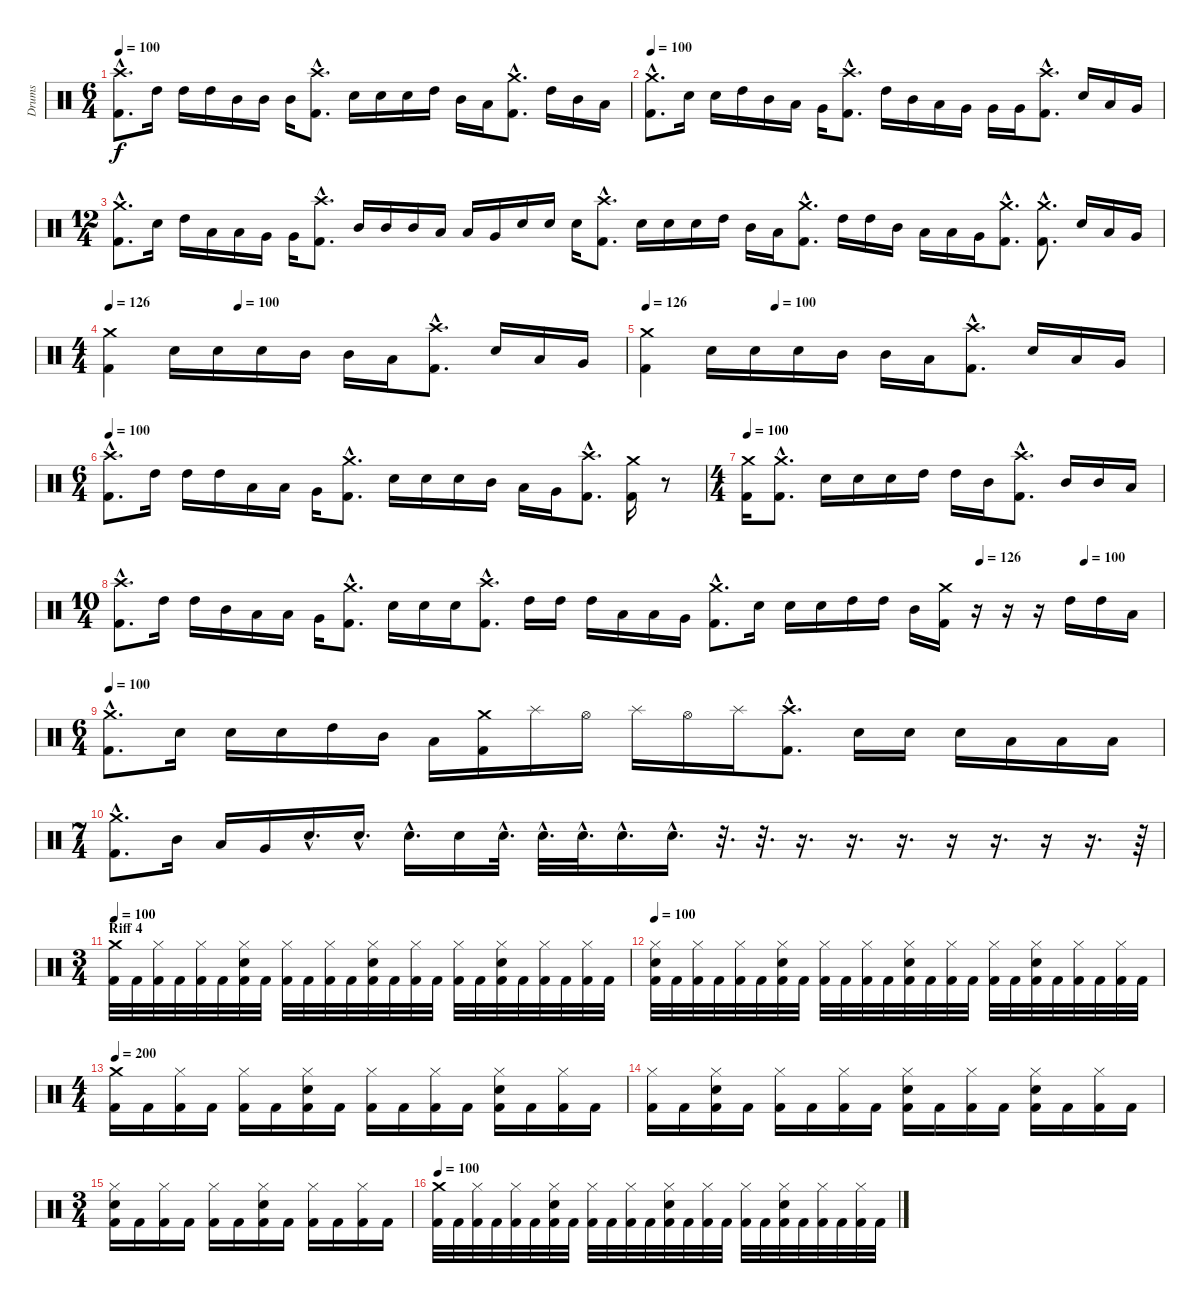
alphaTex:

\track ("Drums" "Drums") {instrument percussion}
\staff {score}
\articulation defaults
\ts (6 4)
\tempo 100
\clef neutral
\ks c
("Crash high (hit)"{hac} "Kick (hit) 2"{hac}).8{d dy f} "High Tom (hit)".16 "High Tom (hit)".16 "High Tom (hit)".16 "Mid Tom (hit)".16 "Mid Tom (hit)".16 "Mid Tom (hit)".16 ("Crash high (hit)"{hac} "Kick (hit) 2"{hac}).8{d} "Electric Snare (hit)".16 "Electric Snare (hit)".16 "Electric Snare (hit)".16 "High Tom (hit)".16 "Mid Tom (hit)".16 "Low Tom (hit)".16 ("Crash medium (hit)"{hac} "Kick (hit) 2"{hac}).8{d} "High Tom (hit)".16 "Mid Tom (hit)".16 "Low Tom (hit)".16 |
\tempo 100
("Crash medium (hit)"{hac} "Kick (hit) 2"{hac}).8{d} "Electric Snare (hit)".16 "Electric Snare (hit)".16 "High Tom (hit)".16 "Mid Tom (hit)".16 "Low Tom (hit)".16 "Very Low Tom (hit)".16 ("Crash high (hit)"{hac} "Kick (hit) 2"{hac}).8{d} "High Tom (hit)".16 "Mid Tom (hit)".16 "Low Tom (hit)".16 "Very Low Tom (hit)".16 "Very Low Tom (hit)".16 "Very Low Tom (hit)".16 ("Crash high (hit)"{hac} "Kick (hit) 2"{hac}).8{d} "Electric Snare (hit)".16 "Low Tom (hit)".16 "Very Low Tom (hit)".16 |
\ts (12 4)
("Crash medium (hit)"{hac} "Kick (hit) 2"{hac}).8{d} "Electric Snare (hit)".16 "High Tom (hit)".16 "Low Tom (hit)".16 "Low Tom (hit)".16 "Very Low Tom (hit)".16 "Very Low Tom (hit)".16 ("Crash high (hit)"{hac} "Kick (hit) 2"{hac}).8{d} "Mid Tom (hit)".16 "Mid Tom (hit)".16 "Mid Tom (hit)".16 "Low Tom (hit)".16 "Low Tom (hit)".16 "Very Low Tom (hit)".16 "Electric Snare (hit)".16 "Electric Snare (hit)".16 "Electric Snare (hit)".16 ("Crash high (hit)"{hac} "Kick (hit) 2"{hac}).8{d} "Electric Snare (hit)".16 "Electric Snare (hit)".16 "Electric Snare (hit)".16 "High Tom (hit)".16 "Mid Tom (hit)".16 "Low Tom (hit)".16 ("Crash medium (hit)"{hac} "Kick (hit) 2"{hac}).8{d} "High Tom (hit)".16 "High Tom (hit)".16 "Mid Tom (hit)".16 "Low Tom (hit)".16 "Low Tom (hit)".16 "Very Low Tom (hit)".16 ("Crash medium (hit)"{hac} "Kick (hit) 2"{hac}).8{d} ("Crash medium (hit)"{hac} "Kick (hit) 2"{hac}).8{d} "Electric Snare (hit)".16 "Low Tom (hit)".16 "Very Low Tom (hit)".16 |
\ts (4 4)
\tempo 126
\tempo (100 0.25)
("Crash medium (hit)" "Kick (hit) 2").4 "Electric Snare (hit)".16 "Electric Snare (hit)".16 "Electric Snare (hit)".16 "Mid Tom (hit)".16 "Mid Tom (hit)".16 "Low Tom (hit)".16 ("Crash high (hit)"{hac} "Kick (hit) 2"{hac}).8{d} "Electric Snare (hit)".16 "Low Tom (hit)".16 "Very Low Tom (hit)".16 |
\tempo 126
\tempo (100 0.25)
("Crash medium (hit)" "Kick (hit) 2").4 "Electric Snare (hit)".16 "Electric Snare (hit)".16 "Electric Snare (hit)".16 "Mid Tom (hit)".16 "Mid Tom (hit)".16 "Low Tom (hit)".16 ("Crash high (hit)"{hac} "Kick (hit) 2"{hac}).8{d} "Electric Snare (hit)".16 "Low Tom (hit)".16 "Very Low Tom (hit)".16 |
\ts (6 4)
\tempo 100
("Crash high (hit)"{hac} "Kick (hit) 2"{hac}).8{d} "High Tom (hit)".16 "High Tom (hit)".16 "High Tom (hit)".16 "Low Tom (hit)".16 "Low Tom (hit)".16 "Very Low Tom (hit)".16 ("Crash medium (hit)"{hac} "Kick (hit) 2"{hac}).8{d} "Electric Snare (hit)".16 "Electric Snare (hit)".16 "Electric Snare (hit)".16 "Mid Tom (hit)".16 "Low Tom (hit)".16 "Very Low Tom (hit)".16 ("Crash high (hit)"{hac} "Kick (hit) 2"{hac}).8{d} ("Crash medium (hit)" "Kick (hit) 2").16 r.8 |
\ts (4 4)
\tempo 100
("Crash medium (hit)" "Kick (hit) 2").16 ("Crash medium (hit)"{hac} "Kick (hit) 2"{hac}).8{d} "Electric Snare (hit)".16 "Electric Snare (hit)".16 "Electric Snare (hit)".16 "High Tom (hit)".16 "High Tom (hit)".16 "Mid Tom (hit)".16 ("Crash high (hit)"{hac} "Kick (hit) 2"{hac}).8{d} "Mid Tom (hit)".16 "Mid Tom (hit)".16 "Low Tom (hit)".16 |
\ts (10 4)
\tempo (126 0.825)
\tempo (100 0.925)
("Crash high (hit)"{hac} "Kick (hit) 2"{hac}).8{d} "High Tom (hit)".16 "High Tom (hit)".16 "Mid Tom (hit)".16 "Low Tom (hit)".16 "Low Tom (hit)".16 "Very Low Tom (hit)".16 ("Crash medium (hit)"{hac} "Kick (hit) 2"{hac}).8{d} "Electric Snare (hit)".16 "Electric Snare (hit)".16 "Electric Snare (hit)".16 ("Crash high (hit)"{hac} "Kick (hit) 2"{hac}).8{d} "High Tom (hit)".16 "High Tom (hit)".16 "High Tom (hit)".16 "Low Tom (hit)".16 "Low Tom (hit)".16 "Very Low Tom (hit)".16 ("Crash medium (hit)"{hac} "Kick (hit) 2"{hac}).8{d} "Electric Snare (hit)".16 "Electric Snare (hit)".16 "Electric Snare (hit)".16 "High Tom (hit)".16 "High Tom (hit)".16 "Mid Tom (hit)".16 ("Crash medium (hit)" "Kick (hit) 2").16 r.16 r.16 r.16 "High Tom (hit)".16 "High Tom (hit)".16 "Low Tom (hit)".16 |
\ts (6 4)
\tempo 100
("Crash medium (hit)"{hac} "Kick (hit) 2"{hac}).8{d} "Electric Snare (hit)".16 "Electric Snare (hit)".16 "Electric Snare (hit)".16 "High Tom (hit)".16 "Mid Tom (hit)".16 "Low Tom (hit)".16 ("Crash medium (hit)" "Kick (hit) 2").16 "Splash (hit)".16 "Hi-Hat (open)".16 "Splash (hit)".16 "Hi-Hat (open)".16 "Splash (hit)".16 ("Crash high (hit)"{hac} "Kick (hit) 2"{hac}).8{d} "Electric Snare (hit)".16 "Electric Snare (hit)".16 "Electric Snare (hit)".16 "Low Tom (hit)".16 "Low Tom (hit)".16 "Low Tom (hit)".16 |
\ts (7 4)
("Crash medium (hit)"{hac} "Kick (hit) 2"{hac}).8{d} "Mid Tom (hit)".16 "Low Tom (hit)".16 "Very Low Tom (hit)".16 "Electric Snare (hit)"{hac}.16{d} "Electric Snare (hit)"{hac}.16{d} "Electric Snare (hit)"{hac}.16{d} "Electric Snare (hit)".16 "Electric Snare (hit)"{hac}.32{d} "Electric Snare (hit)"{hac}.32{d} "Electric Snare (hit)"{hac}.32{d} "Electric Snare (hit)"{hac}.16{d} "Electric Snare (hit)"{hac}.16{d} r.32{d} r.32{d} r.16{d} r.16{d} r.16{d} r.16 r.16{d} r.16 r.16{d} r.64 |
\ts (3 4)
\section ("" "Riff 4")
\tempo 100
("Crash medium (hit)" "Kick (hit) 2").32 "Kick (hit) 2".32 ("Hi-Hat (closed)" "Kick (hit) 2").32 "Kick (hit) 2".32 ("Hi-Hat (closed)" "Kick (hit) 2").32 "Kick (hit) 2".32 ("Hi-Hat (closed)" "Electric Snare (hit)" "Kick (hit) 2").32 "Kick (hit) 2".32 ("Hi-Hat (closed)" "Kick (hit) 2").32 "Kick (hit) 2".32 ("Hi-Hat (closed)" "Kick (hit) 2").32 "Kick (hit) 2".32 ("Hi-Hat (closed)" "Electric Snare (hit)" "Kick (hit) 2").32 "Kick (hit) 2".32 ("Hi-Hat (closed)" "Kick (hit) 2").32 "Kick (hit) 2".32 ("Hi-Hat (closed)" "Kick (hit) 2").32 "Kick (hit) 2".32 ("Hi-Hat (closed)" "Electric Snare (hit)" "Kick (hit) 2").32 "Kick (hit) 2".32 ("Hi-Hat (closed)" "Kick (hit) 2").32 "Kick (hit) 2".32 ("Hi-Hat (closed)" "Kick (hit) 2").32 "Kick (hit) 2".32 |
\tempo 100
("Hi-Hat (closed)" "Electric Snare (hit)" "Kick (hit) 2").32 "Kick (hit) 2".32 ("Hi-Hat (closed)" "Kick (hit) 2").32 "Kick (hit) 2".32 ("Hi-Hat (closed)" "Kick (hit) 2").32 "Kick (hit) 2".32 ("Hi-Hat (closed)" "Electric Snare (hit)" "Kick (hit) 2").32 "Kick (hit) 2".32 ("Hi-Hat (closed)" "Kick (hit) 2").32 "Kick (hit) 2".32 ("Hi-Hat (closed)" "Kick (hit) 2").32 "Kick (hit) 2".32 ("Hi-Hat (closed)" "Electric Snare (hit)" "Kick (hit) 2").32 "Kick (hit) 2".32 ("Hi-Hat (closed)" "Kick (hit) 2").32 "Kick (hit) 2".32 ("Hi-Hat (closed)" "Kick (hit) 2").32 "Kick (hit) 2".32 ("Hi-Hat (closed)" "Electric Snare (hit)" "Kick (hit) 2").32 "Kick (hit) 2".32 ("Hi-Hat (closed)" "Kick (hit) 2").32 "Kick (hit) 2".32 ("Hi-Hat (closed)" "Kick (hit) 2").32 "Kick (hit) 2".32 |
\ts (4 4)
\tempo 200
("Crash medium (hit)" "Kick (hit) 2").16 "Kick (hit) 2".16 ("Hi-Hat (closed)" "Kick (hit) 2").16 "Kick (hit) 2".16 ("Hi-Hat (closed)" "Kick (hit) 2").16 "Kick (hit) 2".16 ("Hi-Hat (closed)" "Electric Snare (hit)" "Kick (hit) 2").16 "Kick (hit) 2".16 ("Hi-Hat (closed)" "Kick (hit) 2").16 "Kick (hit) 2".16 ("Hi-Hat (closed)" "Kick (hit) 2").16 "Kick (hit) 2".16 ("Hi-Hat (closed)" "Electric Snare (hit)" "Kick (hit) 2").16 "Kick (hit) 2".16 ("Hi-Hat (closed)" "Kick (hit) 2").16 "Kick (hit) 2".16 |
("Hi-Hat (closed)" "Kick (hit) 2").16 "Kick (hit) 2".16 ("Hi-Hat (closed)" "Electric Snare (hit)" "Kick (hit) 2").16 "Kick (hit) 2".16 ("Hi-Hat (closed)" "Kick (hit) 2").16 "Kick (hit) 2".16 ("Hi-Hat (closed)" "Kick (hit) 2").16 "Kick (hit) 2".16 ("Hi-Hat (closed)" "Electric Snare (hit)" "Kick (hit) 2").16 "Kick (hit) 2".16 ("Hi-Hat (closed)" "Kick (hit) 2").16 "Kick (hit) 2".16 ("Hi-Hat (closed)" "Electric Snare (hit)" "Kick (hit) 2").16 "Kick (hit) 2".16 ("Hi-Hat (closed)" "Kick (hit) 2").16 "Kick (hit) 2".16 |
\ts (3 4)
("Hi-Hat (closed)" "Electric Snare (hit)" "Kick (hit) 2").16 "Kick (hit) 2".16 ("Hi-Hat (closed)" "Kick (hit) 2").16 "Kick (hit) 2".16 ("Hi-Hat (closed)" "Kick (hit) 2").16 "Kick (hit) 2".16 ("Hi-Hat (closed)" "Electric Snare (hit)" "Kick (hit) 2").16 "Kick (hit) 2".16 ("Hi-Hat (closed)" "Kick (hit) 2").16 "Kick (hit) 2".16 ("Hi-Hat (closed)" "Kick (hit) 2").16 "Kick (hit) 2".16 |
\tempo 100
("Crash medium (hit)" "Kick (hit) 2").32 "Kick (hit) 2".32 ("Hi-Hat (closed)" "Kick (hit) 2").32 "Kick (hit) 2".32 ("Hi-Hat (closed)" "Kick (hit) 2").32 "Kick (hit) 2".32 ("Hi-Hat (closed)" "Electric Snare (hit)" "Kick (hit) 2").32 "Kick (hit) 2".32 ("Hi-Hat (closed)" "Kick (hit) 2").32 "Kick (hit) 2".32 ("Hi-Hat (closed)" "Kick (hit) 2").32 "Kick (hit) 2".32 ("Hi-Hat (closed)" "Electric Snare (hit)" "Kick (hit) 2").32 "Kick (hit) 2".32 ("Hi-Hat (closed)" "Kick (hit) 2").32 "Kick (hit) 2".32 ("Hi-Hat (closed)" "Kick (hit) 2").32 "Kick (hit) 2".32 ("Hi-Hat (closed)" "Electric Snare (hit)" "Kick (hit) 2").32 "Kick (hit) 2".32 ("Hi-Hat (closed)" "Kick (hit) 2").32 "Kick (hit) 2".32 ("Hi-Hat (closed)" "Kick (hit) 2").32 "Kick (hit) 2".32
